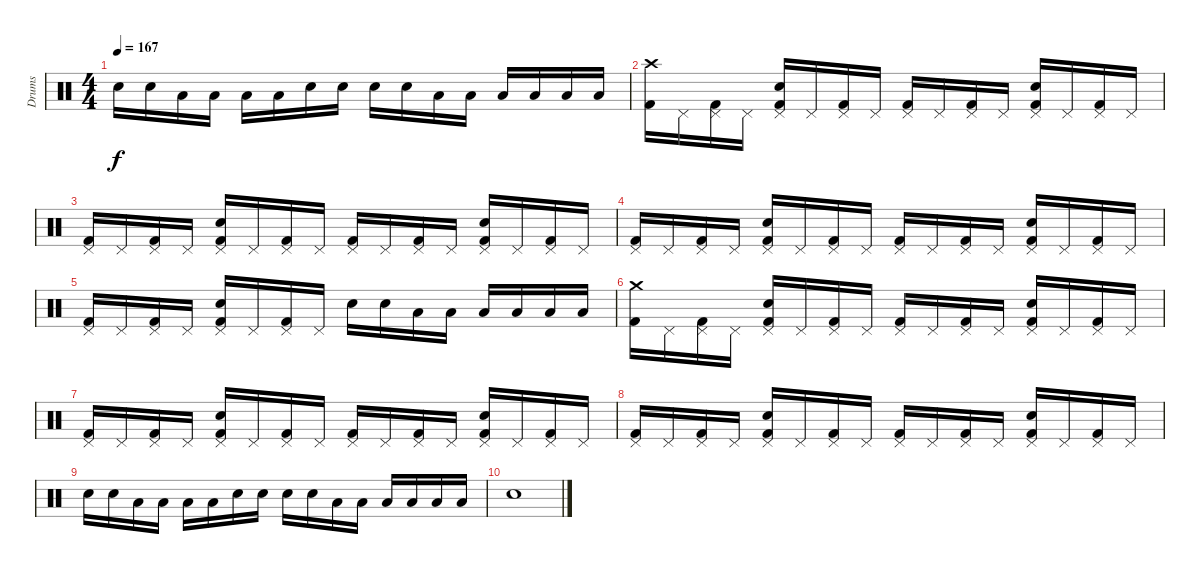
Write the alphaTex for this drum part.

\track ("Drums" "Drums") {instrument percussion}
\staff {score}
\articulation defaults
\ts (4 4)
\tempo 167
\clef neutral
\ks c "Snare (hit) 2".16{dy f} "Snare (hit) 2".16 "Low Tom (hit)".16 "Low Tom (hit)".16 "Low Floor Tom (hit)".16 "Low Floor Tom (hit)".16 "Snare (hit) 2".16 "Snare (hit) 2".16 "Snare (hit) 2".16 "Snare (hit) 2".16 "Low Tom (hit)".16 "Low Tom (hit)".16 "Low Floor Tom (hit)".16 "Low Floor Tom (hit)".16 "Low Floor Tom (hit)".16 "Low Floor Tom (hit)".16
|
("Crash high (hit)" "Kick (hit) 2").16 "Pedal Hi-Hat (hit)".16 ("Pedal Hi-Hat (hit)" "Kick (hit) 2").16 "Pedal Hi-Hat (hit)".16 ("Pedal Hi-Hat (hit)" "Snare (hit) 2" "Kick (hit) 2").16 "Pedal Hi-Hat (hit)".16 ("Pedal Hi-Hat (hit)" "Kick (hit) 2").16 "Pedal Hi-Hat (hit)".16 ("Pedal Hi-Hat (hit)" "Kick (hit) 2").16 "Pedal Hi-Hat (hit)".16 ("Pedal Hi-Hat (hit)" "Kick (hit) 2").16 "Pedal Hi-Hat (hit)".16 ("Pedal Hi-Hat (hit)" "Snare (hit) 2" "Kick (hit) 2").16 "Pedal Hi-Hat (hit)".16 ("Pedal Hi-Hat (hit)" "Kick (hit) 2").16 "Pedal Hi-Hat (hit)".16 |
("Pedal Hi-Hat (hit)" "Kick (hit) 2").16 "Pedal Hi-Hat (hit)".16 ("Pedal Hi-Hat (hit)" "Kick (hit) 2").16 "Pedal Hi-Hat (hit)".16 ("Pedal Hi-Hat (hit)" "Snare (hit) 2" "Kick (hit) 2").16 "Pedal Hi-Hat (hit)".16 ("Pedal Hi-Hat (hit)" "Kick (hit) 2").16 "Pedal Hi-Hat (hit)".16 ("Pedal Hi-Hat (hit)" "Kick (hit) 2").16 "Pedal Hi-Hat (hit)".16 ("Pedal Hi-Hat (hit)" "Kick (hit) 2").16 "Pedal Hi-Hat (hit)".16 ("Pedal Hi-Hat (hit)" "Snare (hit) 2" "Kick (hit) 2").16 "Pedal Hi-Hat (hit)".16 ("Pedal Hi-Hat (hit)" "Kick (hit) 2").16 "Pedal Hi-Hat (hit)".16 |
("Pedal Hi-Hat (hit)" "Kick (hit) 2").16 "Pedal Hi-Hat (hit)".16 ("Pedal Hi-Hat (hit)" "Kick (hit) 2").16 "Pedal Hi-Hat (hit)".16 ("Pedal Hi-Hat (hit)" "Snare (hit) 2" "Kick (hit) 2").16 "Pedal Hi-Hat (hit)".16 ("Pedal Hi-Hat (hit)" "Kick (hit) 2").16 "Pedal Hi-Hat (hit)".16 ("Pedal Hi-Hat (hit)" "Kick (hit) 2").16 "Pedal Hi-Hat (hit)".16 ("Pedal Hi-Hat (hit)" "Kick (hit) 2").16 "Pedal Hi-Hat (hit)".16 ("Pedal Hi-Hat (hit)" "Snare (hit) 2" "Kick (hit) 2").16 "Pedal Hi-Hat (hit)".16 ("Pedal Hi-Hat (hit)" "Kick (hit) 2").16 "Pedal Hi-Hat (hit)".16 |
("Pedal Hi-Hat (hit)" "Kick (hit) 2").16 "Pedal Hi-Hat (hit)".16 ("Pedal Hi-Hat (hit)" "Kick (hit) 2").16 "Pedal Hi-Hat (hit)".16 ("Pedal Hi-Hat (hit)" "Snare (hit) 2" "Kick (hit) 2").16 "Pedal Hi-Hat (hit)".16 ("Pedal Hi-Hat (hit)" "Kick (hit) 2").16 "Pedal Hi-Hat (hit)".16 "Snare (hit) 2".16 "Snare (hit) 2".16 "Low Tom (hit)".16 "Low Tom (hit)".16 "Low Floor Tom (hit)".16 "Low Floor Tom (hit)".16 "Low Tom (hit)".16 "Low Tom (hit)".16 |
("Crash medium (hit)" "Kick (hit) 2").16 "Pedal Hi-Hat (hit)".16 ("Pedal Hi-Hat (hit)" "Kick (hit) 2").16 "Pedal Hi-Hat (hit)".16 ("Pedal Hi-Hat (hit)" "Snare (hit) 2" "Kick (hit) 2").16 "Pedal Hi-Hat (hit)".16 ("Pedal Hi-Hat (hit)" "Kick (hit) 2").16 "Pedal Hi-Hat (hit)".16 ("Pedal Hi-Hat (hit)" "Kick (hit) 2").16 "Pedal Hi-Hat (hit)".16 ("Pedal Hi-Hat (hit)" "Kick (hit) 2").16 "Pedal Hi-Hat (hit)".16 ("Pedal Hi-Hat (hit)" "Snare (hit) 2" "Kick (hit) 2").16 "Pedal Hi-Hat (hit)".16 ("Pedal Hi-Hat (hit)" "Kick (hit) 2").16 "Pedal Hi-Hat (hit)".16 |
("Pedal Hi-Hat (hit)" "Kick (hit) 2").16 "Pedal Hi-Hat (hit)".16 ("Pedal Hi-Hat (hit)" "Kick (hit) 2").16 "Pedal Hi-Hat (hit)".16 ("Pedal Hi-Hat (hit)" "Snare (hit) 2" "Kick (hit) 2").16 "Pedal Hi-Hat (hit)".16 ("Pedal Hi-Hat (hit)" "Kick (hit) 2").16 "Pedal Hi-Hat (hit)".16 ("Pedal Hi-Hat (hit)" "Kick (hit) 2").16 "Pedal Hi-Hat (hit)".16 ("Pedal Hi-Hat (hit)" "Kick (hit) 2").16 "Pedal Hi-Hat (hit)".16 ("Pedal Hi-Hat (hit)" "Snare (hit) 2" "Kick (hit) 2").16 "Pedal Hi-Hat (hit)".16 ("Pedal Hi-Hat (hit)" "Kick (hit) 2").16 "Pedal Hi-Hat (hit)".16 |
("Pedal Hi-Hat (hit)" "Kick (hit) 2").16 "Pedal Hi-Hat (hit)".16 ("Pedal Hi-Hat (hit)" "Kick (hit) 2").16 "Pedal Hi-Hat (hit)".16 ("Pedal Hi-Hat (hit)" "Snare (hit) 2" "Kick (hit) 2").16 "Pedal Hi-Hat (hit)".16 ("Pedal Hi-Hat (hit)" "Kick (hit) 2").16 "Pedal Hi-Hat (hit)".16 ("Pedal Hi-Hat (hit)" "Kick (hit) 2").16 "Pedal Hi-Hat (hit)".16 ("Pedal Hi-Hat (hit)" "Kick (hit) 2").16 "Pedal Hi-Hat (hit)".16 ("Pedal Hi-Hat (hit)" "Snare (hit) 2" "Kick (hit) 2").16 "Pedal Hi-Hat (hit)".16 ("Pedal Hi-Hat (hit)" "Kick (hit) 2").16 "Pedal Hi-Hat (hit)".16 |
"Snare (hit) 2".16 "Snare (hit) 2".16 "Low Tom (hit)".16 "Low Tom (hit)".16 "Low Floor Tom (hit)".16 "Low Floor Tom (hit)".16 "Snare (hit) 2".16 "Snare (hit) 2".16 "Snare (hit) 2".16 "Snare (hit) 2".16 "Low Tom (hit)".16 "Low Tom (hit)".16 "Low Floor Tom (hit)".16 "Low Floor Tom (hit)".16 "Low Floor Tom (hit)".16 "Low Floor Tom (hit)".16 |
"Snare (hit) 2".1
